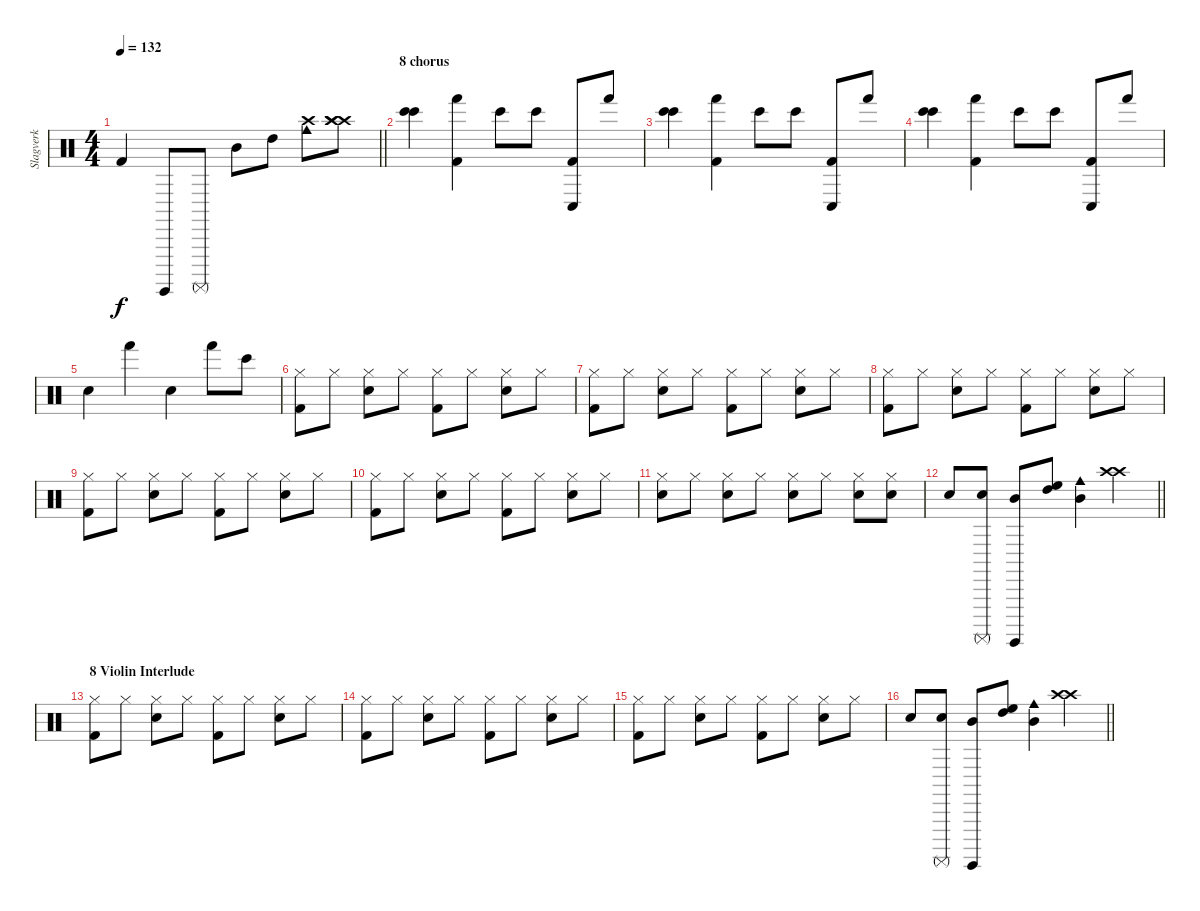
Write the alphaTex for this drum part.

\track ("Slagverk" "Slagverk") {instrument percussion}
\staff {score}
\articulation defaults
\ts (4 4)
\tempo 132
\clef neutral
\barLineRight lightlight
\ks c "Kick (hit) 2".4{dy f} "Surdo (hit)".8 "Surdo (mute)".8 "Mid Tom (hit)".8 "High Tom (hit)".8
("Crash high (hit)" "Cowbell medium (hit)").8 ("Crash high (hit)" "Crash high (hit)" "Crash high (hit)").8 |
\section ("" "8 chorus")
("Bongo High (hit)" "Bongo High (hit)").4 ("Kick (hit) 2" "Hand (hit)").4 "Bongo High (hit)".8 "Bongo High (hit)".8 ("Kick (hit) 2" "Conga low (hit)").8 "Hand (hit)".8 |
("Bongo High (hit)" "Bongo High (hit)").4 ("Kick (hit) 2" "Hand (hit)").4 "Bongo High (hit)".8 "Bongo High (hit)".8 ("Kick (hit) 2" "Conga low (hit)").8 "Hand (hit)".8 |
("Bongo High (hit)" "Bongo High (hit)").4 ("Kick (hit) 2" "Hand (hit)").4 "Bongo High (hit)".8 "Bongo High (hit)".8 ("Kick (hit) 2" "Conga low (hit)").8 "Hand (hit)".8 |
"Snare (hit) 2".4 "Hand (hit)".4 "Snare (hit) 2".4 "Hand (hit)".8 "Bongo High (hit)".8 |
("Kick (hit) 2" "Hi-Hat (closed)").8 "Hi-Hat (closed)".8 ("Snare (hit) 2" "Hi-Hat (closed)").8 "Hi-Hat (closed)".8 ("Kick (hit) 2" "Hi-Hat (closed)").8 "Hi-Hat (closed)".8 ("Snare (hit) 2" "Hi-Hat (closed)").8 "Hi-Hat (closed)".8 |
("Kick (hit) 2" "Hi-Hat (closed)").8 "Hi-Hat (closed)".8 ("Snare (hit) 2" "Hi-Hat (closed)").8 "Hi-Hat (closed)".8 ("Kick (hit) 2" "Hi-Hat (closed)").8 "Hi-Hat (closed)".8 ("Snare (hit) 2" "Hi-Hat (closed)").8 "Hi-Hat (closed)".8 |
("Kick (hit) 2" "Hi-Hat (closed)").8 "Hi-Hat (closed)".8 ("Snare (hit) 2" "Hi-Hat (closed)").8 "Hi-Hat (closed)".8 ("Kick (hit) 2" "Hi-Hat (closed)").8 "Hi-Hat (closed)".8 ("Snare (hit) 2" "Hi-Hat (closed)").8 "Hi-Hat (closed)".8 |
("Kick (hit) 2" "Hi-Hat (closed)").8 "Hi-Hat (closed)".8 ("Snare (hit) 2" "Hi-Hat (closed)").8 "Hi-Hat (closed)".8 ("Kick (hit) 2" "Hi-Hat (closed)").8 "Hi-Hat (closed)".8 ("Snare (hit) 2" "Hi-Hat (closed)").8 "Hi-Hat (closed)".8 |
("Kick (hit) 2" "Hi-Hat (closed)").8 "Hi-Hat (closed)".8 ("Snare (hit) 2" "Hi-Hat (closed)").8 "Hi-Hat (closed)".8 ("Kick (hit) 2" "Hi-Hat (closed)").8 "Hi-Hat (closed)".8 ("Snare (hit) 2" "Hi-Hat (closed)").8 "Hi-Hat (closed)".8 |
("Snare (hit) 2" "Hi-Hat (closed)").8 "Hi-Hat (closed)".8 ("Snare (hit) 2" "Hi-Hat (closed)").8 "Hi-Hat (closed)".8 ("Snare (hit) 2" "Hi-Hat (closed)").8 "Hi-Hat (closed)".8 ("Snare (hit) 2" "Hi-Hat (closed)").8 ("Snare (hit) 2" "Hi-Hat (closed)").8 |
\barLineRight lightlight "Snare (hit) 2".8
("Snare (hit) 2" "Surdo (mute)").8 ("Surdo (hit)" "Mid Tom (hit)").8 ("High Floor Tom (hit)" "High Tom (hit)").8 ("Cowbell medium (hit)" "Mid Tom (hit)").4 ("Crash high (hit)" "Crash high (hit)").4 |
\section ("" "8 Violin Interlude")
("Kick (hit) 2" "Hi-Hat (closed)").8 "Hi-Hat (closed)".8 ("Snare (hit) 2" "Hi-Hat (closed)").8 "Hi-Hat (closed)".8 ("Kick (hit) 2" "Hi-Hat (closed)").8 "Hi-Hat (closed)".8 ("Snare (hit) 2" "Hi-Hat (closed)").8 "Hi-Hat (closed)".8 |
("Kick (hit) 2" "Hi-Hat (closed)").8 "Hi-Hat (closed)".8 ("Snare (hit) 2" "Hi-Hat (closed)").8 "Hi-Hat (closed)".8 ("Kick (hit) 2" "Hi-Hat (closed)").8 "Hi-Hat (closed)".8 ("Snare (hit) 2" "Hi-Hat (closed)").8 "Hi-Hat (closed)".8 |
("Kick (hit) 2" "Hi-Hat (closed)").8 "Hi-Hat (closed)".8 ("Snare (hit) 2" "Hi-Hat (closed)").8 "Hi-Hat (closed)".8 ("Kick (hit) 2" "Hi-Hat (closed)").8 "Hi-Hat (closed)".8 ("Snare (hit) 2" "Hi-Hat (closed)").8 "Hi-Hat (closed)".8 |
\barLineRight lightlight "Snare (hit) 2".8
("Snare (hit) 2" "Surdo (mute)").8 ("Surdo (hit)" "Mid Tom (hit)").8 ("High Floor Tom (hit)" "High Tom (hit)").8 ("Cowbell medium (hit)" "Mid Tom (hit)").4 ("Crash high (hit)" "Crash high (hit)").4
